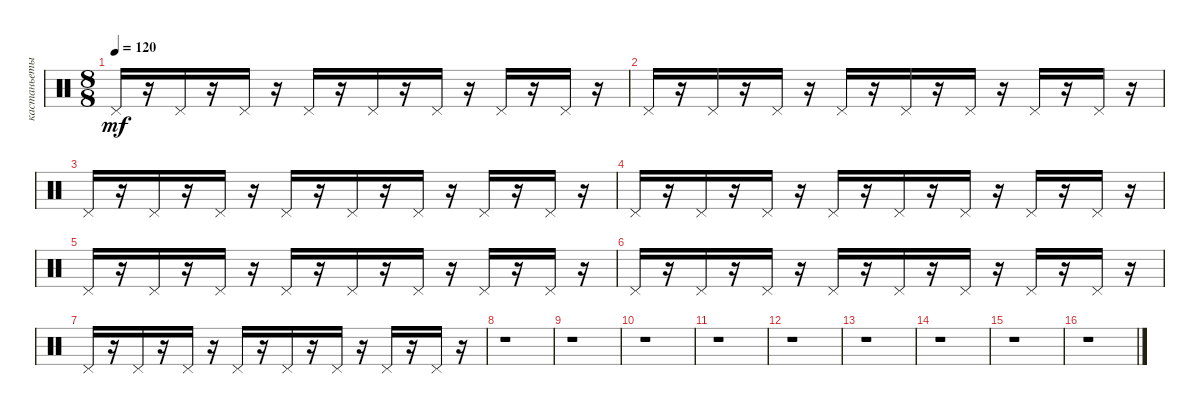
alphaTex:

\track ("кастаньеты" "кастаньеты") {instrument percussion}
\staff {score}
\articulation defaults
\ts (8 8)
\tempo 120
\clef neutral
\ks c "Pedal Hi-Hat (hit)".16{dy mf}
r.16 "Pedal Hi-Hat (hit)".16 r.16 "Pedal Hi-Hat (hit)".16 r.16 "Pedal Hi-Hat (hit)".16 r.16 "Pedal Hi-Hat (hit)".16 r.16 "Pedal Hi-Hat (hit)".16 r.16 "Pedal Hi-Hat (hit)".16 r.16 "Pedal Hi-Hat (hit)".16 r.16 |
"Pedal Hi-Hat (hit)".16 r.16 "Pedal Hi-Hat (hit)".16 r.16 "Pedal Hi-Hat (hit)".16 r.16 "Pedal Hi-Hat (hit)".16 r.16 "Pedal Hi-Hat (hit)".16 r.16 "Pedal Hi-Hat (hit)".16 r.16 "Pedal Hi-Hat (hit)".16 r.16 "Pedal Hi-Hat (hit)".16 r.16 |
"Pedal Hi-Hat (hit)".16 r.16 "Pedal Hi-Hat (hit)".16 r.16 "Pedal Hi-Hat (hit)".16 r.16 "Pedal Hi-Hat (hit)".16 r.16 "Pedal Hi-Hat (hit)".16 r.16 "Pedal Hi-Hat (hit)".16 r.16 "Pedal Hi-Hat (hit)".16 r.16 "Pedal Hi-Hat (hit)".16 r.16 |
"Pedal Hi-Hat (hit)".16 r.16 "Pedal Hi-Hat (hit)".16 r.16 "Pedal Hi-Hat (hit)".16 r.16 "Pedal Hi-Hat (hit)".16 r.16 "Pedal Hi-Hat (hit)".16 r.16 "Pedal Hi-Hat (hit)".16 r.16 "Pedal Hi-Hat (hit)".16 r.16 "Pedal Hi-Hat (hit)".16 r.16 |
"Pedal Hi-Hat (hit)".16 r.16 "Pedal Hi-Hat (hit)".16 r.16 "Pedal Hi-Hat (hit)".16 r.16 "Pedal Hi-Hat (hit)".16 r.16 "Pedal Hi-Hat (hit)".16 r.16 "Pedal Hi-Hat (hit)".16 r.16 "Pedal Hi-Hat (hit)".16 r.16 "Pedal Hi-Hat (hit)".16 r.16 |
"Pedal Hi-Hat (hit)".16 r.16 "Pedal Hi-Hat (hit)".16 r.16 "Pedal Hi-Hat (hit)".16 r.16 "Pedal Hi-Hat (hit)".16 r.16 "Pedal Hi-Hat (hit)".16 r.16 "Pedal Hi-Hat (hit)".16 r.16 "Pedal Hi-Hat (hit)".16 r.16 "Pedal Hi-Hat (hit)".16 r.16 |
"Pedal Hi-Hat (hit)".16 r.16 "Pedal Hi-Hat (hit)".16 r.16 "Pedal Hi-Hat (hit)".16 r.16 "Pedal Hi-Hat (hit)".16 r.16 "Pedal Hi-Hat (hit)".16 r.16 "Pedal Hi-Hat (hit)".16 r.16 "Pedal Hi-Hat (hit)".16 r.16 "Pedal Hi-Hat (hit)".16 r.16 |
r.1 |
r.1 |
r.1 |
r.1 |
r.1 |
r.1 |
r.1 |
r.1 |
r.1
